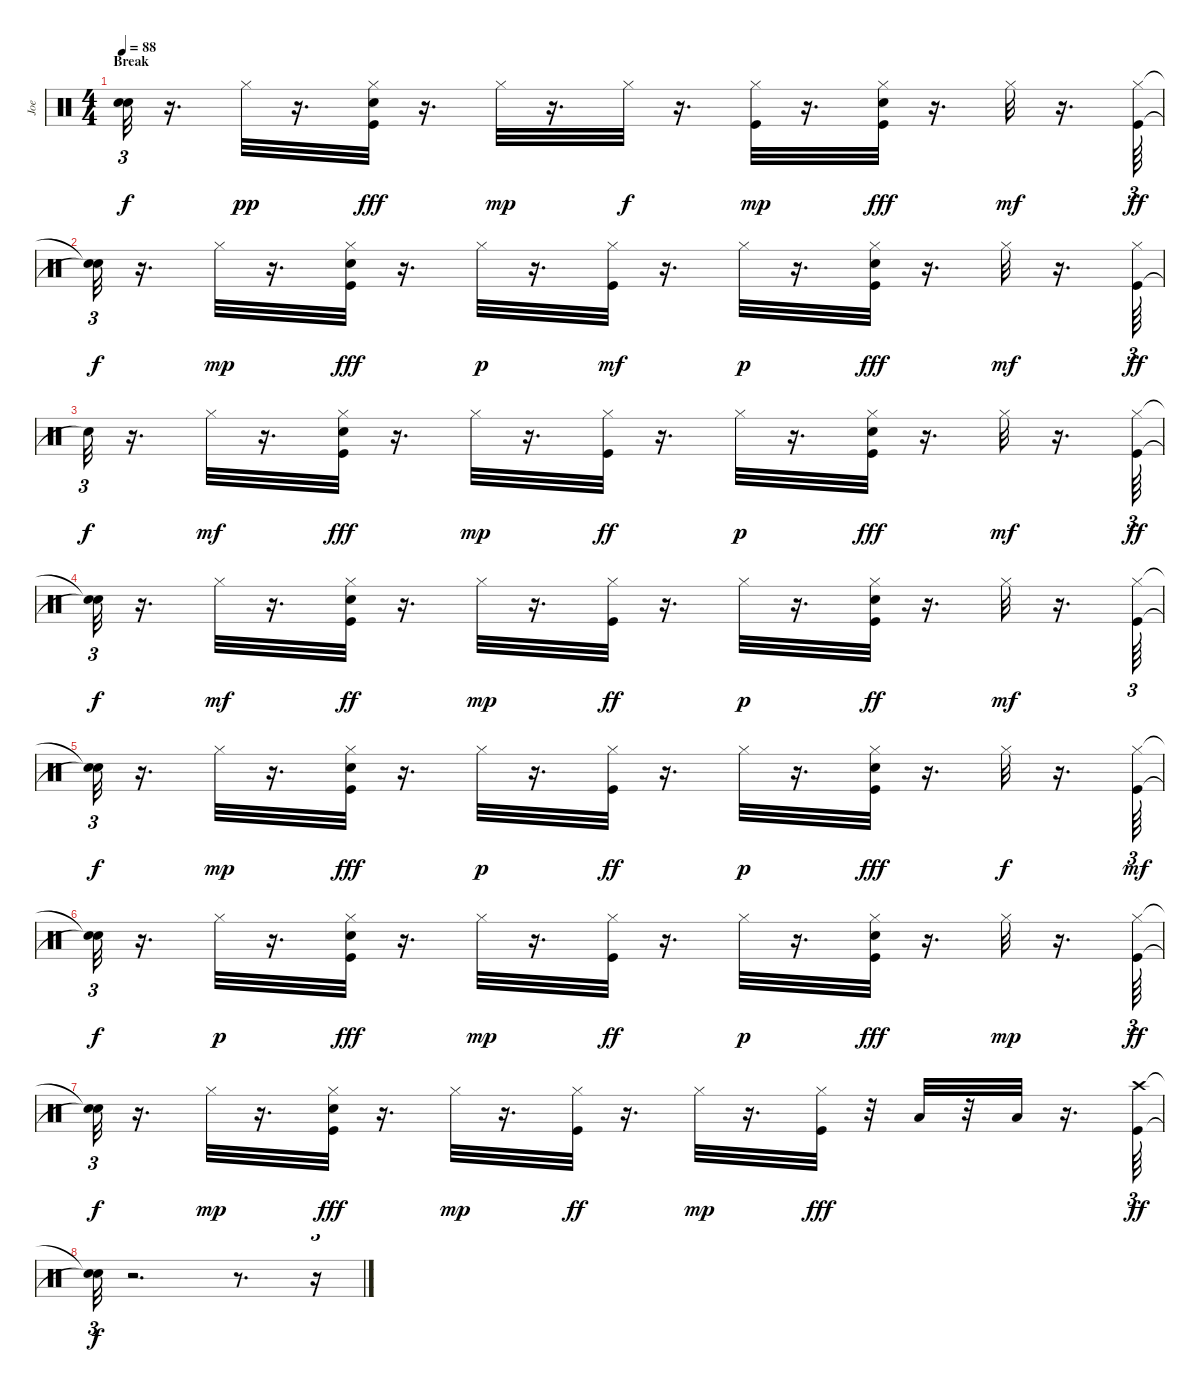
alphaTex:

\track ("Joe" "Joe") {instrument percussion}
\staff {score}
\articulation defaults
\ts (4 4)
\section ("" "Break")
\tempo 88
\clef neutral
\ks c
("Snare (hit)"{t} "Snare (hit)"{t}).32{tu (3 2) dy f} r.16{d} "Hi-Hat (closed)".32{dy pp} r.16{d} ("Kick (hit)" "Electric Snare (hit)" "Hi-Hat (closed)").32{dy fff} r.16{d} "Hi-Hat (closed)".32{dy mp} r.16{d} "Hi-Hat (closed)".32{dy f} r.16{d} ("Kick (hit)" "Hi-Hat (closed)").32{dy mp} r.16{d} ("Kick (hit)" "Electric Snare (hit)" "Hi-Hat (closed)").32{dy fff} r.16{d} "Hi-Hat (closed)".32{dy mf} r.16{d} ("Kick (hit)" "Hi-Hat (closed)").64{tu (3 2) dy ff} |
("Snare (hit)"{t} "Snare (hit)"{t}).32{tu (3 2) dy f} r.16{d} "Hi-Hat (closed)".32{dy mp} r.16{d} ("Kick (hit)" "Hi-Hat (closed)" "Electric Snare (hit)").32{dy fff} r.16{d} "Hi-Hat (closed)".32{dy p} r.16{d} ("Kick (hit)" "Hi-Hat (closed)").32{dy mf} r.16{d} "Hi-Hat (closed)".32{dy p} r.16{d} ("Kick (hit)" "Electric Snare (hit)" "Hi-Hat (closed)").32{dy fff} r.16{d} "Hi-Hat (closed)".32{dy mf} r.16{d} ("Kick (hit)" "Hi-Hat (closed)").64{tu (3 2) dy ff} |
"Snare (hit)"{t}.32{tu (3 2) dy f} r.16{d} "Hi-Hat (closed)".32{dy mf} r.16{d} ("Kick (hit)" "Electric Snare (hit)" "Hi-Hat (closed)").32{dy fff} r.16{d} "Hi-Hat (closed)".32{dy mp} r.16{d} ("Kick (hit)" "Hi-Hat (closed)").32{dy ff} r.16{d} "Hi-Hat (closed)".32{dy p} r.16{d} ("Hi-Hat (closed)" "Kick (hit)" "Electric Snare (hit)").32{dy fff} r.16{d} "Hi-Hat (closed)".32{dy mf} r.16{d} ("Kick (hit)" "Hi-Hat (closed)").64{tu (3 2) dy ff} |
("Snare (hit)"{t} "Snare (hit)"{t}).32{tu (3 2) dy f} r.16{d} "Hi-Hat (closed)".32{dy mf} r.16{d} ("Hi-Hat (closed)" "Kick (hit)" "Electric Snare (hit)").32{dy ff} r.16{d} "Hi-Hat (closed)".32{dy mp} r.16{d} ("Hi-Hat (closed)" "Kick (hit)").32{dy ff} r.16{d} "Hi-Hat (closed)".32{dy p} r.16{d} ("Kick (hit)" "Electric Snare (hit)" "Hi-Hat (closed)").32{dy ff} r.16{d} "Hi-Hat (closed)".32{dy mf} r.16{d} ("Kick (hit)" "Hi-Hat (closed)").64{tu (3 2)} |
("Snare (hit)"{t} "Snare (hit)"{t}).32{tu (3 2) dy f} r.16{d} "Hi-Hat (closed)".32{dy mp} r.16{d} ("Kick (hit)" "Hi-Hat (closed)" "Electric Snare (hit)").32{dy fff} r.16{d} "Hi-Hat (closed)".32{dy p} r.16{d} ("Kick (hit)" "Hi-Hat (closed)").32{dy ff} r.16{d} "Hi-Hat (closed)".32{dy p} r.16{d} ("Hi-Hat (closed)" "Kick (hit)" "Electric Snare (hit)").32{dy fff} r.16{d} "Hi-Hat (closed)".32{dy f} r.16{d} ("Hi-Hat (closed)" "Kick (hit)").64{tu (3 2) dy mf} |
("Snare (hit)"{t} "Snare (hit)"{t}).32{tu (3 2) dy f} r.16{d} "Hi-Hat (closed)".32{dy p} r.16{d} ("Kick (hit)" "Electric Snare (hit)" "Hi-Hat (closed)").32{dy fff} r.16{d} "Hi-Hat (closed)".32{dy mp} r.16{d} ("Kick (hit)" "Hi-Hat (closed)").32{dy ff} r.16{d} "Hi-Hat (closed)".32{dy p} r.16{d} ("Hi-Hat (closed)" "Kick (hit)" "Electric Snare (hit)").32{dy fff} r.16{d} "Hi-Hat (closed)".32{dy mp} r.16{d} ("Hi-Hat (closed)" "Kick (hit)").64{tu (3 2) dy ff} |
("Snare (hit)"{t} "Snare (hit)"{t}).32{tu (3 2) dy f} r.16{d} "Hi-Hat (closed)".32{dy mp} r.16{d} ("Kick (hit)" "Electric Snare (hit)" "Hi-Hat (closed)").32{dy fff} r.16{d} "Hi-Hat (closed)".32{dy mp} r.16{d} ("Kick (hit)" "Hi-Hat (closed)").32{dy ff} r.16{d} "Hi-Hat (closed)".32{dy mp} r.16{d} ("Kick (hit)" "Hi-Hat (closed)").32{dy fff} r.32 "Low Tom (hit)".32 r.32 "Low Tom (hit)".32 r.16{d} ("Kick (hit)" "Crash high (hit)").64{tu (3 2) dy ff} |
("Snare (hit)"{t} "Snare (hit)"{t}).32{tu (3 2) dy f} r.2{d} r.8{d} r.16{tu (3 2)}
